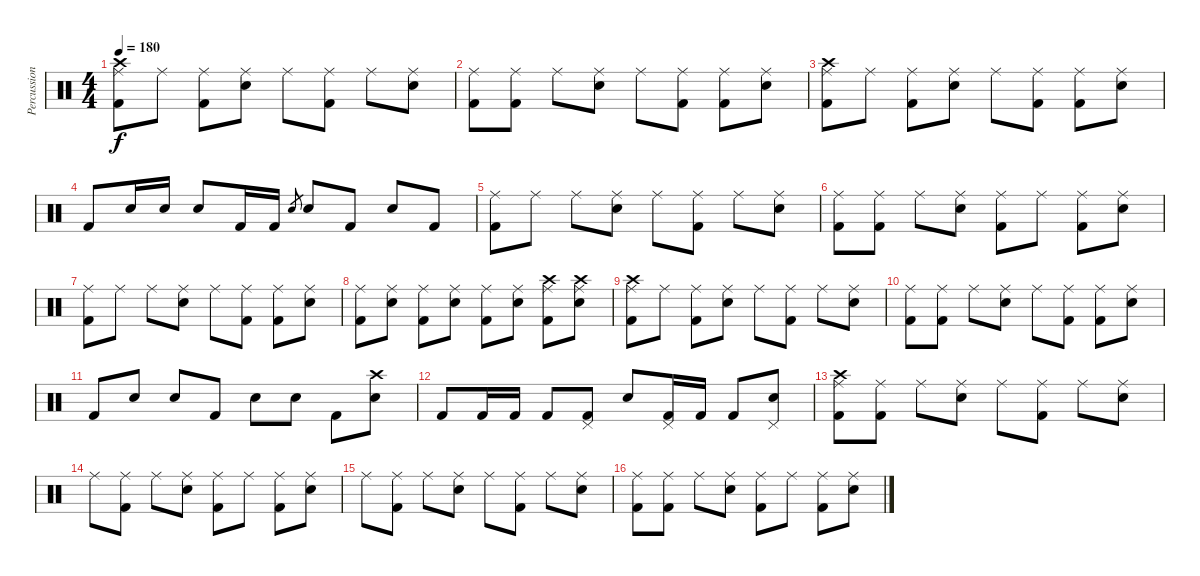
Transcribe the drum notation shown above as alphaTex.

\track ("Percussion" "Percussion") {instrument percussion}
\staff {score}
\articulation defaults
\ts (4 4)
\tempo 180
\clef neutral
\ks c
("Ride (middle)" "Crash high (hit)" "Kick (hit) 2").8{dy f} "Ride (middle)".8 ("Ride (middle)" "Kick (hit) 2").8 ("Ride (middle)" "Electric Snare (hit)").8 "Ride (middle)".8 ("Ride (middle)" "Kick (hit) 2").8 "Ride (middle)".8 ("Ride (middle)" "Electric Snare (hit)").8 |
("Ride (middle)" "Kick (hit) 2").8 ("Ride (middle)" "Kick (hit) 2").8 "Ride (middle)".8 ("Ride (middle)" "Electric Snare (hit)").8 "Ride (middle)".8 ("Ride (middle)" "Kick (hit) 2").8 ("Ride (middle)" "Kick (hit) 2").8 ("Ride (middle)" "Electric Snare (hit)").8 |
("Ride (middle)" "Crash high (hit)" "Kick (hit) 2").8 "Ride (middle)".8 ("Ride (middle)" "Kick (hit) 2").8 ("Ride (middle)" "Electric Snare (hit)").8 "Ride (middle)".8 ("Ride (middle)" "Kick (hit) 2").8 ("Ride (middle)" "Kick (hit) 2").8 ("Ride (middle)" "Electric Snare (hit)").8 |
"Kick (hit) 2".8 "Electric Snare (hit)".16 "Electric Snare (hit)".16 "Electric Snare (hit)".8 "Kick (hit) 2".16 "Kick (hit) 2".16 "Electric Snare (hit)".8{gr} "Electric Snare (hit)".8 "Kick (hit) 2".8 "Electric Snare (hit)".8 "Kick (hit) 2".8 |
("Ride (middle)" "Kick (hit) 2").8 "Ride (middle)".8 "Ride (middle)".8 ("Ride (middle)" "Electric Snare (hit)").8 "Ride (middle)".8 ("Ride (middle)" "Kick (hit) 2").8 "Ride (middle)".8 ("Ride (middle)" "Electric Snare (hit)").8 |
("Ride (middle)" "Kick (hit) 2").8 ("Ride (middle)" "Kick (hit) 2").8 "Ride (middle)".8 ("Ride (middle)" "Electric Snare (hit)").8 ("Ride (middle)" "Kick (hit) 2").8 "Ride (middle)".8 ("Ride (middle)" "Kick (hit) 2").8 ("Ride (middle)" "Electric Snare (hit)").8 |
("Ride (middle)" "Kick (hit) 2").8 "Ride (middle)".8 "Ride (middle)".8 ("Ride (middle)" "Electric Snare (hit)").8 "Ride (middle)".8 ("Ride (middle)" "Kick (hit) 2").8 ("Ride (middle)" "Kick (hit) 2").8 ("Ride (middle)" "Electric Snare (hit)").8 |
("Ride (middle)" "Kick (hit) 2").8 ("Ride (middle)" "Electric Snare (hit)").8 ("Ride (middle)" "Kick (hit) 2").8 ("Ride (middle)" "Electric Snare (hit)").8 ("Ride (middle)" "Kick (hit) 2").8 ("Ride (middle)" "Electric Snare (hit)").8 ("Ride (middle)" "Crash high (hit)" "Kick (hit) 2").8 ("Ride (middle)" "Crash high (hit)" "Electric Snare (hit)").8 |
("Ride (middle)" "Crash high (hit)" "Kick (hit) 2").8 "Ride (middle)".8 ("Ride (middle)" "Kick (hit) 2").8 ("Ride (middle)" "Electric Snare (hit)").8 "Ride (middle)".8 ("Ride (middle)" "Kick (hit) 2").8 "Ride (middle)".8 ("Ride (middle)" "Electric Snare (hit)").8 |
("Ride (middle)" "Kick (hit) 2").8 ("Ride (middle)" "Kick (hit) 2").8 "Ride (middle)".8 ("Ride (middle)" "Electric Snare (hit)").8 "Ride (middle)".8 ("Ride (middle)" "Kick (hit) 2").8 ("Ride (middle)" "Kick (hit) 2").8 ("Ride (middle)" "Electric Snare (hit)").8 |
"Kick (hit) 2".8 "Electric Snare (hit)".8 "Electric Snare (hit)".8 "Kick (hit) 2".8 "Electric Snare (hit)".8 "Electric Snare (hit)".8 "Kick (hit) 2".8 ("Crash high (hit)" "Electric Snare (hit)").8 |
"Kick (hit) 2".8 "Kick (hit) 2".16 "Kick (hit) 2".16 "Kick (hit) 2".8 ("Pedal Hi-Hat (hit)" "Kick (hit) 2").8 "Electric Snare (hit)".8 ("Pedal Hi-Hat (hit)" "Kick (hit) 2").16 "Kick (hit) 2".16 "Kick (hit) 2".8 ("Pedal Hi-Hat (hit)" "Electric Snare (hit)").8 |
("Ride (middle)" "Crash high (hit)" "Kick (hit) 2").8 ("Ride (middle)" "Kick (hit) 2").8 "Ride (middle)".8 ("Ride (middle)" "Electric Snare (hit)").8 "Ride (middle)".8 ("Ride (middle)" "Kick (hit) 2").8 "Ride (middle)".8 ("Ride (middle)" "Electric Snare (hit)").8 |
"Ride (middle)".8 ("Ride (middle)" "Kick (hit) 2").8 "Ride (middle)".8 ("Ride (middle)" "Electric Snare (hit)").8 ("Ride (middle)" "Kick (hit) 2").8 "Ride (middle)".8 ("Ride (middle)" "Kick (hit) 2").8 ("Ride (middle)" "Electric Snare (hit)").8 |
"Ride (middle)".8 ("Ride (middle)" "Kick (hit) 2").8 "Ride (middle)".8 ("Ride (middle)" "Electric Snare (hit)").8 "Ride (middle)".8 ("Ride (middle)" "Kick (hit) 2").8 "Ride (middle)".8 ("Ride (middle)" "Electric Snare (hit)").8 |
("Ride (middle)" "Kick (hit) 2").8 ("Ride (middle)" "Kick (hit) 2").8 "Ride (middle)".8 ("Ride (middle)" "Electric Snare (hit)").8 ("Ride (middle)" "Kick (hit) 2").8 "Ride (middle)".8 ("Ride (middle)" "Kick (hit) 2").8 ("Ride (middle)" "Electric Snare (hit)").8
